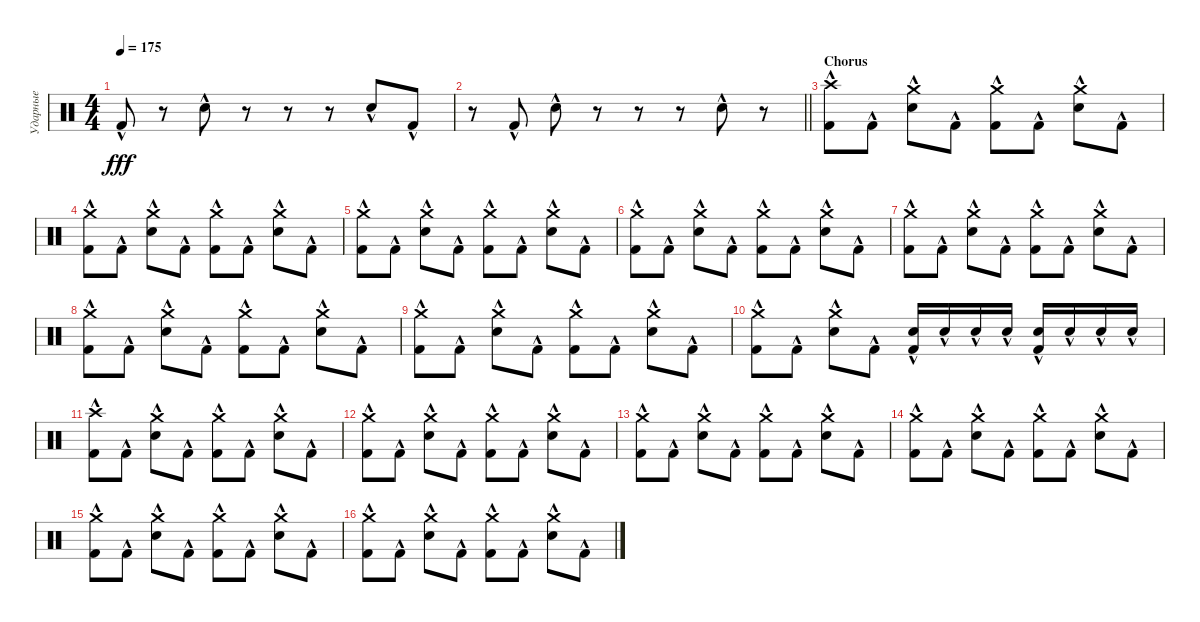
\track ("Ударные" "Ударные") {instrument percussion}
\staff {score}
\articulation defaults
\ts (4 4)
\tempo 175
\clef neutral
\ks c "Kick (hit) 2"{hac}.8{dy fff volume 3}
r.8{volume 16} "Snare (hit) 2"{hac}.8 r.8 r.8 r.8 "Snare (hit) 2"{hac}.8 "Kick (hit) 2"{hac}.8 |
\barLineRight lightlight
r.8 "Kick (hit) 2"{hac}.8 "Snare (hit) 2"{hac}.8 r.8 r.8 r.8 "Snare (hit) 2"{hac}.8 r.8 |
\section ("" "Chorus")
("Crash high (hit)"{hac} "Kick (hit) 2"{hac}).8{volume 16} "Kick (hit) 2"{hac}.8 ("Crash medium (hit)"{hac} "Snare (hit) 2"{hac}).8 "Kick (hit) 2"{hac}.8 ("Crash medium (hit)"{hac} "Kick (hit) 2"{hac}).8 "Kick (hit) 2"{hac}.8 ("Crash medium (hit)"{hac} "Snare (hit) 2"{hac}).8 "Kick (hit) 2"{hac}.8 |
("Crash medium (hit)"{hac} "Kick (hit) 2"{hac}).8 "Kick (hit) 2"{hac}.8 ("Crash medium (hit)"{hac} "Snare (hit) 2"{hac}).8 "Kick (hit) 2"{hac}.8 ("Crash medium (hit)"{hac} "Kick (hit) 2"{hac}).8 "Kick (hit) 2"{hac}.8 ("Crash medium (hit)"{hac} "Snare (hit) 2"{hac}).8 "Kick (hit) 2"{hac}.8 |
("Crash medium (hit)"{hac} "Kick (hit) 2"{hac}).8 "Kick (hit) 2"{hac}.8 ("Crash medium (hit)"{hac} "Snare (hit) 2"{hac}).8 "Kick (hit) 2"{hac}.8 ("Crash medium (hit)"{hac} "Kick (hit) 2"{hac}).8 "Kick (hit) 2"{hac}.8 ("Crash medium (hit)"{hac} "Snare (hit) 2"{hac}).8 "Kick (hit) 2"{hac}.8 |
("Crash medium (hit)"{hac} "Kick (hit) 2"{hac}).8 "Kick (hit) 2"{hac}.8 ("Crash medium (hit)"{hac} "Snare (hit) 2"{hac}).8 "Kick (hit) 2"{hac}.8 ("Crash medium (hit)"{hac} "Kick (hit) 2"{hac}).8 "Kick (hit) 2"{hac}.8 ("Crash medium (hit)"{hac} "Snare (hit) 2"{hac}).8 "Kick (hit) 2"{hac}.8 |
("Crash medium (hit)"{hac} "Kick (hit) 2"{hac}).8 "Kick (hit) 2"{hac}.8 ("Crash medium (hit)"{hac} "Snare (hit) 2"{hac}).8 "Kick (hit) 2"{hac}.8 ("Crash medium (hit)"{hac} "Kick (hit) 2"{hac}).8 "Kick (hit) 2"{hac}.8 ("Crash medium (hit)"{hac} "Snare (hit) 2"{hac}).8 "Kick (hit) 2"{hac}.8 |
("Crash medium (hit)"{hac} "Kick (hit) 2"{hac}).8 "Kick (hit) 2"{hac}.8 ("Crash medium (hit)"{hac} "Snare (hit) 2"{hac}).8 "Kick (hit) 2"{hac}.8 ("Crash medium (hit)"{hac} "Kick (hit) 2"{hac}).8 "Kick (hit) 2"{hac}.8 ("Crash medium (hit)"{hac} "Snare (hit) 2"{hac}).8 "Kick (hit) 2"{hac}.8 |
("Crash medium (hit)"{hac} "Kick (hit) 2"{hac}).8 "Kick (hit) 2"{hac}.8 ("Crash medium (hit)"{hac} "Snare (hit) 2"{hac}).8 "Kick (hit) 2"{hac}.8 ("Crash medium (hit)"{hac} "Kick (hit) 2"{hac}).8 "Kick (hit) 2"{hac}.8 ("Crash medium (hit)"{hac} "Snare (hit) 2"{hac}).8 "Kick (hit) 2"{hac}.8 |
("Crash medium (hit)"{hac} "Kick (hit) 2"{hac}).8 "Kick (hit) 2"{hac}.8 ("Crash medium (hit)"{hac} "Snare (hit) 2"{hac}).8 "Kick (hit) 2"{hac}.8 ("Snare (hit) 2"{hac} "Kick (hit) 2"{hac}).16 "Snare (hit) 2"{hac}.16 "Snare (hit) 2"{hac}.16 "Snare (hit) 2"{hac}.16 ("Snare (hit) 2"{hac} "Kick (hit) 2"{hac}).16 "Snare (hit) 2"{hac}.16 "Snare (hit) 2"{hac}.16 "Snare (hit) 2"{hac}.16 |
("Crash high (hit)"{hac} "Kick (hit) 2"{hac}).8 "Kick (hit) 2"{hac}.8 ("Crash medium (hit)"{hac} "Snare (hit) 2"{hac}).8 "Kick (hit) 2"{hac}.8 ("Crash medium (hit)"{hac} "Kick (hit) 2"{hac}).8 "Kick (hit) 2"{hac}.8 ("Crash medium (hit)"{hac} "Snare (hit) 2"{hac}).8 "Kick (hit) 2"{hac}.8 |
("Crash medium (hit)"{hac} "Kick (hit) 2"{hac}).8 "Kick (hit) 2"{hac}.8 ("Crash medium (hit)"{hac} "Snare (hit) 2"{hac}).8 "Kick (hit) 2"{hac}.8 ("Crash medium (hit)"{hac} "Kick (hit) 2"{hac}).8 "Kick (hit) 2"{hac}.8 ("Crash medium (hit)"{hac} "Snare (hit) 2"{hac}).8 "Kick (hit) 2"{hac}.8 |
("Crash medium (hit)"{hac} "Kick (hit) 2"{hac}).8 "Kick (hit) 2"{hac}.8 ("Crash medium (hit)"{hac} "Snare (hit) 2"{hac}).8 "Kick (hit) 2"{hac}.8 ("Crash medium (hit)"{hac} "Kick (hit) 2"{hac}).8 "Kick (hit) 2"{hac}.8 ("Crash medium (hit)"{hac} "Snare (hit) 2"{hac}).8 "Kick (hit) 2"{hac}.8 |
("Crash medium (hit)"{hac} "Kick (hit) 2"{hac}).8 "Kick (hit) 2"{hac}.8 ("Crash medium (hit)"{hac} "Snare (hit) 2"{hac}).8 "Kick (hit) 2"{hac}.8 ("Crash medium (hit)"{hac} "Kick (hit) 2"{hac}).8 "Kick (hit) 2"{hac}.8 ("Crash medium (hit)"{hac} "Snare (hit) 2"{hac}).8 "Kick (hit) 2"{hac}.8 |
("Crash medium (hit)"{hac} "Kick (hit) 2"{hac}).8 "Kick (hit) 2"{hac}.8 ("Crash medium (hit)"{hac} "Snare (hit) 2"{hac}).8 "Kick (hit) 2"{hac}.8 ("Crash medium (hit)"{hac} "Kick (hit) 2"{hac}).8 "Kick (hit) 2"{hac}.8 ("Crash medium (hit)"{hac} "Snare (hit) 2"{hac}).8 "Kick (hit) 2"{hac}.8 |
("Crash medium (hit)"{hac} "Kick (hit) 2"{hac}).8 "Kick (hit) 2"{hac}.8 ("Crash medium (hit)"{hac} "Snare (hit) 2"{hac}).8 "Kick (hit) 2"{hac}.8 ("Crash medium (hit)"{hac} "Kick (hit) 2"{hac}).8 "Kick (hit) 2"{hac}.8 ("Crash medium (hit)"{hac} "Snare (hit) 2"{hac}).8 "Kick (hit) 2"{hac}.8
